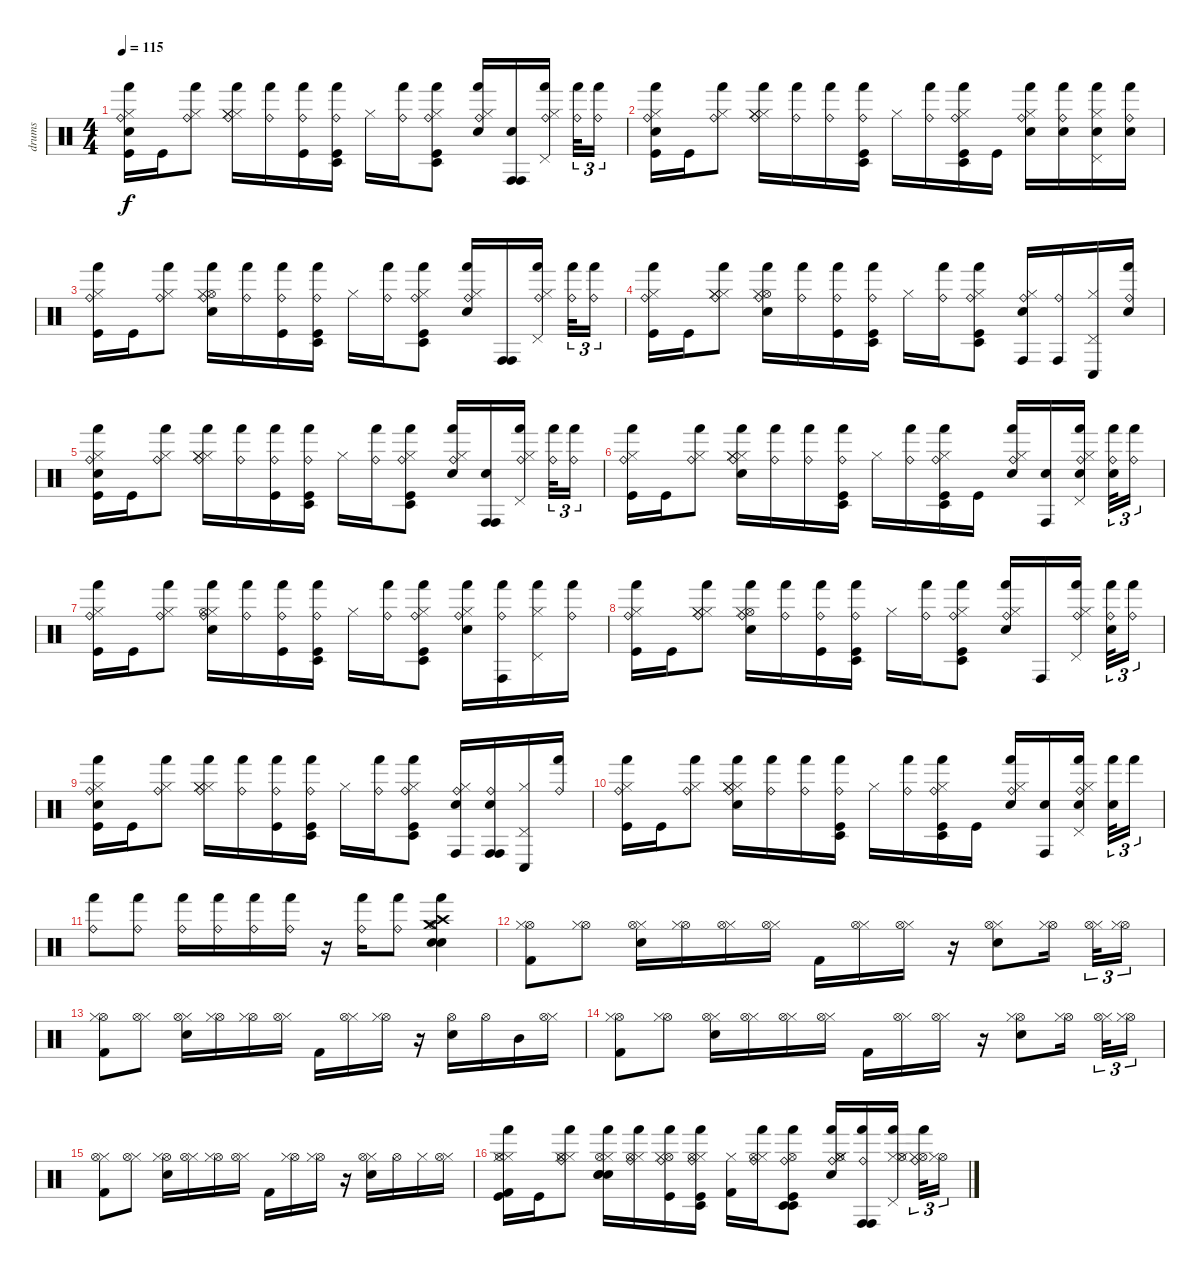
\track ("drums" "drums") {instrument percussion}
\staff {score}
\articulation defaults
\ts (4 4)
\tempo 115
\clef neutral
\ks c
("Kick (hit)" "Ride (bell)" "Hi-Hat (closed)" "Hand (hit)" "Electric Snare (hit)").16{dy f} "Kick (hit)".16 ("Hi-Hat (closed)" "Ride (bell)" "Hand (hit)").8 ("Ride (bell)" "Hi-Hat (closed)" "Hand (hit)" "Hi-Hat (closed)" "Hi-Hat (closed)").16 ("Hand (hit)" "Ride (bell)").16 ("Ride (bell)" "Hand (hit)" "Kick (hit)").16 ("Ride (bell)" "Hand (hit)" "Timbale low (hit)" "Kick (hit)").16 "Hi-Hat (closed)".16 ("Ride (bell)" "Hand (hit)").16 ("Hand (hit)" "Ride (bell)" "Kick (hit)" "Hi-Hat (closed)" "Timbale low (hit)").8 ("Electric Snare (hit)" "Hand (hit)" "Hi-Hat (closed)" "Ride (bell)").16 ("Electric Snare (hit)" "Conga high (hit)" "Conga high (hit)").16 ("Hand (hit)" "Ride (bell)" "Pedal Hi-Hat (hit)" "Hi-Hat (closed)").16 ("Hand (hit)" "Ride (bell)").32{tu (3 2)} ("Ride (bell)" "Hand (hit)").16{tu (3 2)} |
("Kick (hit)" "Electric Snare (hit)" "Hi-Hat (closed)" "Hand (hit)" "Ride (bell)").16 "Kick (hit)".16 ("Hi-Hat (closed)" "Hand (hit)" "Ride (bell)").8 ("Hi-Hat (closed)" "Hi-Hat (closed)" "Hand (hit)" "Hi-Hat (closed)" "Ride (bell)").16 ("Ride (bell)" "Hand (hit)").16 ("Ride (bell)" "Hand (hit)").16 ("Hand (hit)" "Ride (bell)" "Timbale low (hit)" "Kick (hit)").16 "Hi-Hat (closed)".16 ("Hand (hit)" "Ride (bell)").16 ("Hand (hit)" "Ride (bell)" "Timbale low (hit)" "Kick (hit)" "Hi-Hat (closed)").16 "Kick (hit)".16 ("Electric Snare (hit)" "Hand (hit)" "Ride (bell)" "Hi-Hat (closed)").16 ("Hand (hit)" "Ride (bell)" "Electric Snare (hit)").16 ("Hi-Hat (closed)" "Electric Snare (hit)" "Pedal Hi-Hat (hit)" "Hand (hit)").16 ("Electric Snare (hit)" "Ride (bell)" "Hand (hit)").16 |
("Hand (hit)" "Ride (bell)" "Kick (hit)" "Hi-Hat (closed)").16 "Kick (hit)".16 ("Hand (hit)" "Ride (bell)" "Hi-Hat (closed)").8 ("Ride (bell)" "Hi-Hat (open)" "Electric Snare (hit)" "Hi-Hat (closed)" "Hand (hit)").16 ("Hand (hit)" "Ride (bell)").16 ("Kick (hit)" "Hand (hit)" "Ride (bell)").16 ("Hand (hit)" "Ride (bell)" "Kick (hit)" "Timbale low (hit)").16 "Hi-Hat (closed)".16 ("Hand (hit)" "Ride (bell)").16 ("Kick (hit)" "Hand (hit)" "Timbale low (hit)" "Hi-Hat (closed)" "Ride (bell)").8 ("Electric Snare (hit)" "Hand (hit)" "Ride (bell)" "Hi-Hat (closed)").16 ("Conga high (hit)" "Conga high (hit)").16 ("Hand (hit)" "Pedal Hi-Hat (hit)" "Hi-Hat (closed)" "Ride (bell)").16 ("Hand (hit)" "Ride (bell)").32{tu (3 2)} ("Hand (hit)" "Ride (bell)").16{tu (3 2)} |
("Kick (hit)" "Hand (hit)" "Ride (bell)" "Hi-Hat (closed)").16 "Kick (hit)".16 ("Hi-Hat (closed)" "Hi-Hat (closed)" "Hi-Hat (closed)" "Ride (bell)" "Hand (hit)").8 ("Hand (hit)" "Ride (bell)" "Hi-Hat (open)" "Electric Snare (hit)" "Hi-Hat (closed)").16 ("Ride (bell)" "Hand (hit)").16 ("Ride (bell)" "Hand (hit)" "Kick (hit)").16 ("Kick (hit)" "Timbale low (hit)" "Hand (hit)" "Ride (bell)").16 "Hi-Hat (closed)".16 ("Hand (hit)" "Ride (bell)").16 ("Hi-Hat (closed)" "Hand (hit)" "Kick (hit)" "Timbale low (hit)" "Ride (bell)").8 ("Conga high (hit)" "Ride (bell)" "Electric Snare (hit)" "Hi-Hat (closed)").16 ("Conga high (hit)" "Ride (bell)").16 ("Pedal Hi-Hat (hit)" "Hi-Hat (closed)" "Conga low (hit)").16 ("Hand (hit)" "Ride (bell)" "Electric Snare (hit)").16 |
("Hi-Hat (closed)" "Kick (hit)" "Ride (bell)" "Electric Snare (hit)" "Hand (hit)").16 "Kick (hit)".16 ("Hand (hit)" "Hi-Hat (closed)" "Ride (bell)").8 ("Hi-Hat (closed)" "Hi-Hat (closed)" "Hi-Hat (closed)" "Hand (hit)" "Ride (bell)").16 ("Ride (bell)" "Hand (hit)").16 ("Hand (hit)" "Ride (bell)" "Kick (hit)").16 ("Ride (bell)" "Kick (hit)" "Timbale low (hit)" "Hand (hit)").16 "Hi-Hat (closed)".16 ("Ride (bell)" "Hand (hit)").16 ("Hand (hit)" "Timbale low (hit)" "Hi-Hat (closed)" "Ride (bell)" "Kick (hit)").8 ("Ride (bell)" "Hand (hit)" "Electric Snare (hit)" "Hi-Hat (closed)").16 ("Electric Snare (hit)" "Conga high (hit)" "Conga high (hit)").16 ("Pedal Hi-Hat (hit)" "Ride (bell)" "Hand (hit)" "Hi-Hat (closed)").16 ("Hand (hit)" "Ride (bell)").32{tu (3 2)} ("Ride (bell)" "Hand (hit)").16{tu (3 2)} |
("Kick (hit)" "Hi-Hat (closed)" "Ride (bell)" "Hand (hit)").16 "Kick (hit)".16 ("Ride (bell)" "Hi-Hat (closed)" "Hand (hit)").8 ("Hi-Hat (closed)" "Ride (bell)" "Electric Snare (hit)" "Hi-Hat (closed)" "Hand (hit)" "Hi-Hat (closed)").16 ("Ride (bell)" "Hand (hit)").16 ("Ride (bell)" "Hand (hit)").16 ("Kick (hit)" "Timbale low (hit)" "Ride (bell)" "Hand (hit)").16 "Hi-Hat (closed)".16 ("Ride (bell)" "Hand (hit)").16 ("Hi-Hat (closed)" "Timbale low (hit)" "Ride (bell)" "Hand (hit)" "Kick (hit)").16 "Kick (hit)".16 ("Ride (bell)" "Electric Snare (hit)" "Hi-Hat (closed)" "Hand (hit)").16 ("Conga high (hit)" "Electric Snare (hit)").16 ("Pedal Hi-Hat (hit)" "Electric Snare (hit)" "Hand (hit)" "Ride (bell)" "Hi-Hat (closed)").16 ("Hand (hit)" "Electric Snare (hit)" "Ride (bell)").32{tu (3 2)} ("Ride (bell)" "Hand (hit)").16{tu (3 2)} |
("Kick (hit)" "Hi-Hat (closed)" "Ride (bell)" "Hand (hit)").16 "Kick (hit)".16 ("Ride (bell)" "Hi-Hat (closed)" "Hand (hit)").8 ("Hi-Hat (closed)" "Electric Snare (hit)" "Ride (bell)" "Hand (hit)" "Hi-Hat (open)").16 ("Ride (bell)" "Hand (hit)").16 ("Ride (bell)" "Kick (hit)" "Hand (hit)").16 ("Timbale low (hit)" "Kick (hit)" "Ride (bell)" "Hand (hit)").16 "Hi-Hat (closed)".16 ("Ride (bell)" "Hand (hit)").16 ("Hi-Hat (closed)" "Kick (hit)" "Ride (bell)" "Hand (hit)" "Timbale low (hit)").8 ("Electric Snare (hit)" "Hi-Hat (closed)" "Hand (hit)" "Ride (bell)").16 ("Ride (bell)" "Hand (hit)" "Conga high (hit)").16 ("Hi-Hat (closed)" "Hand (hit)" "Pedal Hi-Hat (hit)").16 ("Ride (bell)" "Hand (hit)").16 |
("Hand (hit)" "Hi-Hat (closed)" "Kick (hit)" "Ride (bell)").16 "Kick (hit)".16 ("Hi-Hat (closed)" "Ride (bell)" "Hi-Hat (closed)" "Hi-Hat (closed)" "Hand (hit)").8 ("Hi-Hat (open)" "Hi-Hat (closed)" "Ride (bell)" "Electric Snare (hit)" "Hand (hit)").16 ("Hand (hit)" "Ride (bell)").16 ("Kick (hit)" "Ride (bell)" "Hand (hit)").16 ("Ride (bell)" "Hand (hit)" "Timbale low (hit)" "Kick (hit)").16 "Hi-Hat (closed)".16 ("Hand (hit)" "Ride (bell)").16 ("Hand (hit)" "Ride (bell)" "Hi-Hat (closed)" "Timbale low (hit)" "Kick (hit)").8 ("Hi-Hat (closed)" "Hand (hit)" "Ride (bell)" "Electric Snare (hit)").16 "Conga high (hit)".16 ("Hand (hit)" "Ride (bell)" "Hi-Hat (closed)" "Pedal Hi-Hat (hit)").16 ("Electric Snare (hit)" "Hand (hit)" "Ride (bell)").32{tu (3 2)} ("Ride (bell)" "Hand (hit)").16{tu (3 2)} |
("Ride (bell)" "Kick (hit)" "Hi-Hat (closed)" "Hand (hit)" "Electric Snare (hit)").16 "Kick (hit)".16 ("Hand (hit)" "Ride (bell)" "Hi-Hat (closed)").8 ("Hi-Hat (closed)" "Hi-Hat (closed)" "Hi-Hat (closed)" "Hand (hit)" "Ride (bell)").16 ("Hand (hit)" "Ride (bell)").16 ("Hand (hit)" "Ride (bell)" "Kick (hit)").16 ("Hand (hit)" "Kick (hit)" "Timbale low (hit)" "Ride (bell)").16 "Hi-Hat (closed)".16 ("Ride (bell)" "Hand (hit)").16 ("Hi-Hat (closed)" "Kick (hit)" "Timbale low (hit)" "Hand (hit)" "Ride (bell)").8 ("Conga high (hit)" "Ride (bell)" "Electric Snare (hit)" "Hi-Hat (closed)").16 ("Electric Snare (hit)" "Conga high (hit)" "Ride (bell)" "Conga high (hit)").16 ("Conga low (hit)" "Hi-Hat (closed)" "Pedal Hi-Hat (hit)").16 ("Ride (bell)" "Hand (hit)").16 |
("Kick (hit)" "Hand (hit)" "Ride (bell)" "Hi-Hat (closed)").16 "Kick (hit)".16 ("Ride (bell)" "Hi-Hat (closed)" "Hand (hit)").8 ("Hi-Hat (closed)" "Hand (hit)" "Ride (bell)" "Electric Snare (hit)" "Hi-Hat (closed)" "Hi-Hat (closed)").16 ("Ride (bell)" "Hand (hit)").16 ("Ride (bell)" "Hand (hit)").16 ("Kick (hit)" "Timbale low (hit)" "Hand (hit)" "Ride (bell)").16 "Hi-Hat (closed)".16 ("Ride (bell)" "Hand (hit)").16 ("Timbale low (hit)" "Hi-Hat (closed)" "Kick (hit)" "Ride (bell)" "Hand (hit)").16 "Kick (hit)".16 ("Ride (bell)" "Hi-Hat (closed)" "Hand (hit)" "Electric Snare (hit)").16 ("Conga high (hit)" "Electric Snare (hit)").16 ("Hand (hit)" "Pedal Hi-Hat (hit)" "Hi-Hat (closed)" "Ride (bell)" "Electric Snare (hit)").16 ("Hand (hit)" "Electric Snare (hit)").32{tu (3 2)} "Hand (hit)".16{tu (3 2)} |
("Ride (bell)" "Hand (hit)").8 ("Hand (hit)" "Ride (bell)").8 ("Hand (hit)" "Ride (bell)").16 ("Ride (bell)" "Hand (hit)").16 ("Hand (hit)" "Ride (bell)").16 ("Ride (bell)" "Hand (hit)").16 r.16 ("Hand (hit)" "Ride (bell)").16 ("Ride (bell)" "Hand (hit)").8 ("Crash high (hit)" "Snare (hit) 2" "Crash medium (hit)" "Hi-Hat (open)" "Hand Clap (hit)" "Hand (hit)").4 |
("Kick (hit) 2" "Hi-Hat (open)" "Hi-Hat (closed)").8 ("Hi-Hat (open)" "Hi-Hat (closed)").8 ("Hi-Hat (closed)" "Hi-Hat (open)" "Hand Clap (hit)").16 ("Hi-Hat (open)" "Hi-Hat (closed)").16 ("Hi-Hat (closed)" "Hi-Hat (open)").16 ("Hi-Hat (closed)" "Hi-Hat (open)").16 "Kick (hit) 2".16 ("Hi-Hat (closed)" "Hi-Hat (open)").16 ("Hi-Hat (closed)" "Hi-Hat (open)").16 r.16 ("Hand Clap (hit)" "Hi-Hat (closed)" "Hi-Hat (open)").8 ("Hi-Hat (open)" "Hi-Hat (closed)").16 ("Hi-Hat (closed)" "Hi-Hat (open)").32{tu (3 2)} ("Hi-Hat (open)" "Hi-Hat (closed)").16{tu (3 2)} |
("Hi-Hat (open)" "Kick (hit) 2" "Hi-Hat (closed)").8 ("Hi-Hat (closed)" "Hi-Hat (open)").8 ("Hand Clap (hit)" "Hi-Hat (closed)" "Hi-Hat (open)").16 ("Hi-Hat (open)" "Hi-Hat (closed)").16 ("Hi-Hat (open)" "Hi-Hat (closed)").16 ("Hi-Hat (closed)" "Hi-Hat (open)").16 "Kick (hit) 2".16 ("Hi-Hat (closed)" "Hi-Hat (open)").16 ("Hi-Hat (open)" "Hi-Hat (closed)").16 r.16 ("Hand Clap (hit)" "Hi-Hat (open)").16 "Hi-Hat (open)".16 "Mid Tom (hit)".16 ("Hi-Hat (closed)" "Hi-Hat (open)").16 |
("Hi-Hat (open)" "Hi-Hat (closed)" "Kick (hit) 2").8 ("Hi-Hat (open)" "Hi-Hat (closed)").8 ("Hi-Hat (closed)" "Hi-Hat (open)" "Hand Clap (hit)").16 ("Hi-Hat (closed)" "Hi-Hat (open)").16 ("Hi-Hat (closed)" "Hi-Hat (open)").16 ("Hi-Hat (closed)" "Hi-Hat (open)").16 "Kick (hit) 2".16 ("Hi-Hat (closed)" "Hi-Hat (open)").16 ("Hi-Hat (closed)" "Hi-Hat (open)").16 r.16 ("Hi-Hat (open)" "Hi-Hat (closed)" "Hand Clap (hit)").8 ("Hi-Hat (open)" "Hi-Hat (closed)").16 ("Hi-Hat (closed)" "Hi-Hat (open)").32{tu (3 2)} ("Hi-Hat (open)" "Hi-Hat (closed)").16{tu (3 2)} |
("Kick (hit) 2" "Hi-Hat (closed)" "Hi-Hat (open)").8 ("Hi-Hat (closed)" "Hi-Hat (open)").8 ("Hi-Hat (open)" "Hand Clap (hit)" "Hi-Hat (closed)").16 ("Hi-Hat (closed)" "Hi-Hat (open)").16 ("Hi-Hat (open)" "Hi-Hat (closed)").16 ("Hi-Hat (closed)" "Hi-Hat (open)").16 "Kick (hit) 2".16 ("Hi-Hat (open)" "Hi-Hat (closed)").16 ("Hi-Hat (open)" "Hi-Hat (closed)").16 r.16 ("Hi-Hat (closed)" "Hand Clap (hit)" "Hi-Hat (open)").16 "Hi-Hat (open)".16 "Hi-Hat (closed)".16 ("Hi-Hat (closed)" "Hi-Hat (open)").16 |
("Kick (hit) 2" "Hi-Hat (closed)" "Hi-Hat (closed)" "Hi-Hat (open)" "Hand (hit)" "Kick (hit)").16 "Kick (hit)".16 ("Hi-Hat (closed)" "Hi-Hat (closed)" "Hi-Hat (open)" "Hand (hit)" "Ride (bell)").8 ("Electric Snare (hit)" "Hi-Hat (closed)" "Electric Snare (hit)" "Hand (hit)" "Hi-Hat (open)" "Hand Clap (hit)").16 ("Hand (hit)" "Ride (bell)" "Hi-Hat (closed)" "Hi-Hat (open)").16 ("Hand (hit)" "Ride (bell)" "Hi-Hat (open)" "Hi-Hat (closed)" "Kick (hit)").16 ("Hand (hit)" "Ride (bell)" "Kick (hit)" "Hi-Hat (closed)" "Hi-Hat (open)" "Timbale low (hit)").16 ("Kick (hit) 2" "Hi-Hat (closed)").16 ("Ride (bell)" "Hi-Hat (closed)" "Hi-Hat (open)" "Hand (hit)").16 ("Hand (hit)" "Ride (bell)" "Timbale low (hit)" "Hi-Hat (open)" "Timbale low (hit)" "Kick (hit)").8 ("Hi-Hat (closed)" "Hi-Hat (open)" "Hi-Hat (closed)" "Electric Snare (hit)" "Ride (bell)" "Hand (hit)").16 ("Conga high (hit)" "Ride (bell)" "Hand (hit)" "Conga high (hit)").16 ("Hi-Hat (closed)" "Hand (hit)" "Hi-Hat (open)" "Pedal Hi-Hat (hit)" "Hi-Hat (closed)").16 ("Ride (bell)" "Hand (hit)" "Hi-Hat (open)" "Hi-Hat (closed)").32{tu (3 2)} ("Hi-Hat (open)" "Hi-Hat (closed)").16{tu (3 2)}
